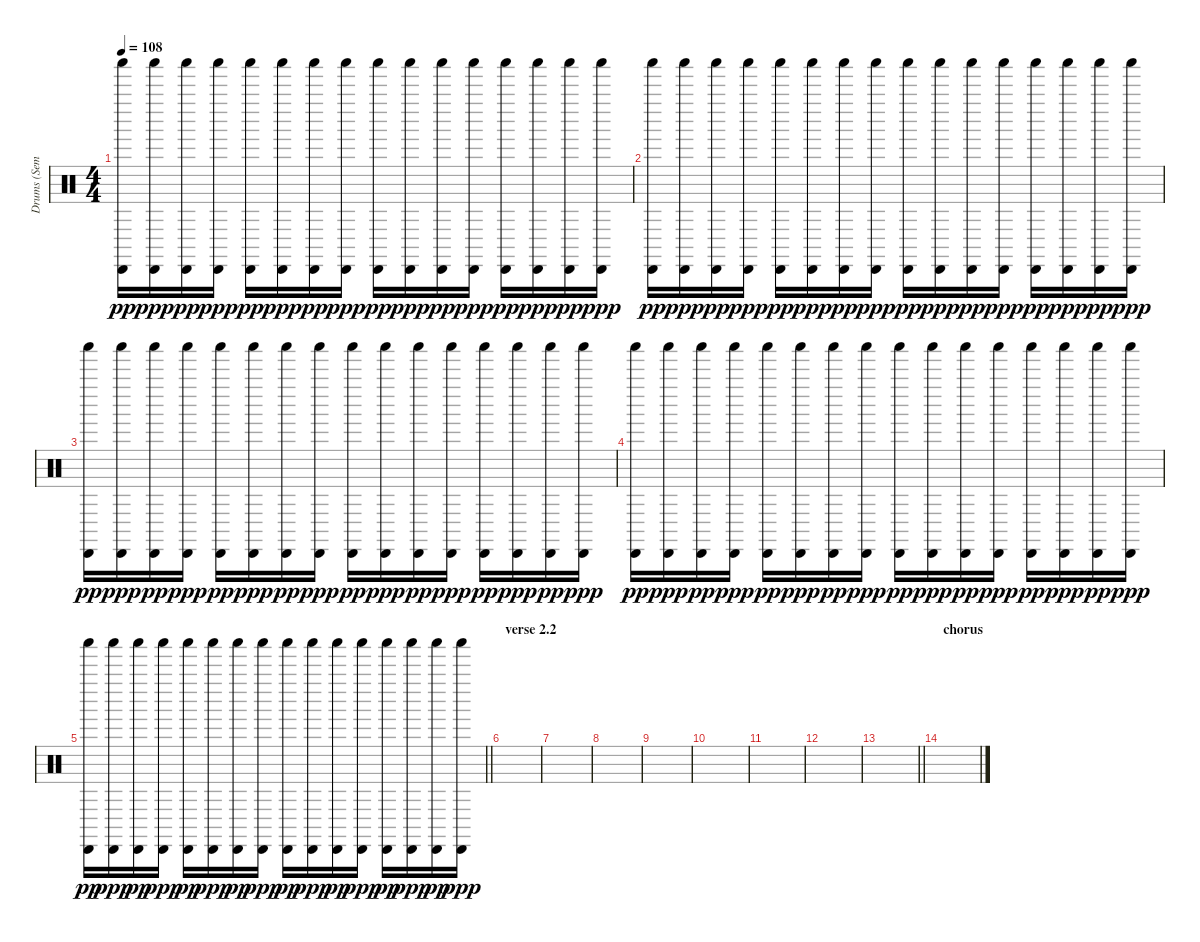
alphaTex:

\track ("Drums (Semple)" "Drums (Sem") {instrument percussion}
\staff {score}
\articulation defaults
\ts (4 4)
\tempo 108
\clef neutral
\ks c
("Cabasa (hit)" "Shaker (hit)").16{dy pp} ("Cabasa (hit)" "Shaker (hit)").16{dy ppp} ("Cabasa (hit)" "Shaker (hit)").16{dy pp} ("Cabasa (hit)" "Shaker (hit)").16{dy ppp} ("Cabasa (hit)" "Shaker (hit)").16{dy pp} ("Cabasa (hit)" "Shaker (hit)").16{dy ppp} ("Cabasa (hit)" "Shaker (hit)").16{dy pp} ("Cabasa (hit)" "Shaker (hit)").16{dy ppp} ("Cabasa (hit)" "Shaker (hit)").16{dy pp} ("Cabasa (hit)" "Shaker (hit)").16{dy ppp} ("Cabasa (hit)" "Shaker (hit)").16{dy pp} ("Cabasa (hit)" "Shaker (hit)").16{dy ppp} ("Cabasa (hit)" "Shaker (hit)").16{dy pp} ("Cabasa (hit)" "Shaker (hit)").16{dy ppp} ("Cabasa (hit)" "Shaker (hit)").16{dy pp} ("Cabasa (hit)" "Shaker (hit)").16{dy ppp} |
("Cabasa (hit)" "Shaker (hit)").16{dy pp} ("Cabasa (hit)" "Shaker (hit)").16{dy ppp} ("Cabasa (hit)" "Shaker (hit)").16{dy pp} ("Cabasa (hit)" "Shaker (hit)").16{dy ppp} ("Cabasa (hit)" "Shaker (hit)").16{dy pp} ("Cabasa (hit)" "Shaker (hit)").16{dy ppp} ("Cabasa (hit)" "Shaker (hit)").16{dy pp} ("Cabasa (hit)" "Shaker (hit)").16{dy ppp} ("Cabasa (hit)" "Shaker (hit)").16{dy pp} ("Cabasa (hit)" "Shaker (hit)").16{dy ppp} ("Cabasa (hit)" "Shaker (hit)").16{dy pp} ("Cabasa (hit)" "Shaker (hit)").16{dy ppp} ("Cabasa (hit)" "Shaker (hit)").16{dy pp} ("Cabasa (hit)" "Shaker (hit)").16{dy ppp} ("Cabasa (hit)" "Shaker (hit)").16{dy pp} ("Cabasa (hit)" "Shaker (hit)").16{dy ppp} |
("Cabasa (hit)" "Shaker (hit)").16{dy pp} ("Cabasa (hit)" "Shaker (hit)").16{dy ppp} ("Cabasa (hit)" "Shaker (hit)").16{dy pp} ("Cabasa (hit)" "Shaker (hit)").16{dy ppp} ("Cabasa (hit)" "Shaker (hit)").16{dy pp} ("Cabasa (hit)" "Shaker (hit)").16{dy ppp} ("Cabasa (hit)" "Shaker (hit)").16{dy pp} ("Cabasa (hit)" "Shaker (hit)").16{dy ppp} ("Cabasa (hit)" "Shaker (hit)").16{dy pp} ("Cabasa (hit)" "Shaker (hit)").16{dy ppp} ("Cabasa (hit)" "Shaker (hit)").16{dy pp} ("Cabasa (hit)" "Shaker (hit)").16{dy ppp} ("Cabasa (hit)" "Shaker (hit)").16{dy pp} ("Cabasa (hit)" "Shaker (hit)").16{dy ppp} ("Cabasa (hit)" "Shaker (hit)").16{dy pp} ("Cabasa (hit)" "Shaker (hit)").16{dy ppp} |
("Cabasa (hit)" "Shaker (hit)").16{dy pp} ("Cabasa (hit)" "Shaker (hit)").16{dy ppp} ("Cabasa (hit)" "Shaker (hit)").16{dy pp} ("Cabasa (hit)" "Shaker (hit)").16{dy ppp} ("Cabasa (hit)" "Shaker (hit)").16{dy pp} ("Cabasa (hit)" "Shaker (hit)").16{dy ppp} ("Cabasa (hit)" "Shaker (hit)").16{dy pp} ("Cabasa (hit)" "Shaker (hit)").16{dy ppp} ("Cabasa (hit)" "Shaker (hit)").16{dy pp} ("Cabasa (hit)" "Shaker (hit)").16{dy ppp} ("Cabasa (hit)" "Shaker (hit)").16{dy pp} ("Cabasa (hit)" "Shaker (hit)").16{dy ppp} ("Cabasa (hit)" "Shaker (hit)").16{dy pp} ("Cabasa (hit)" "Shaker (hit)").16{dy ppp} ("Cabasa (hit)" "Shaker (hit)").16{dy pp} ("Cabasa (hit)" "Shaker (hit)").16{dy ppp} |
\barLineRight lightlight
("Cabasa (hit)" "Shaker (hit)").16{dy pp} ("Cabasa (hit)" "Shaker (hit)").16{dy ppp} ("Cabasa (hit)" "Shaker (hit)").16{dy pp} ("Cabasa (hit)" "Shaker (hit)").16{dy ppp} ("Cabasa (hit)" "Shaker (hit)").16{dy pp} ("Cabasa (hit)" "Shaker (hit)").16{dy ppp} ("Cabasa (hit)" "Shaker (hit)").16{dy pp} ("Cabasa (hit)" "Shaker (hit)").16{dy ppp} ("Cabasa (hit)" "Shaker (hit)").16{dy pp} ("Cabasa (hit)" "Shaker (hit)").16{dy ppp} ("Cabasa (hit)" "Shaker (hit)").16{dy pp} ("Cabasa (hit)" "Shaker (hit)").16{dy ppp} ("Cabasa (hit)" "Shaker (hit)").16{dy pp} ("Cabasa (hit)" "Shaker (hit)").16{dy ppp} ("Cabasa (hit)" "Shaker (hit)").16{dy pp} ("Cabasa (hit)" "Shaker (hit)").16{dy ppp} |
\section ("" "verse 2.2")
|
|
|
|
|
|
|
\barLineRight lightlight
|
\section ("" "chorus")
